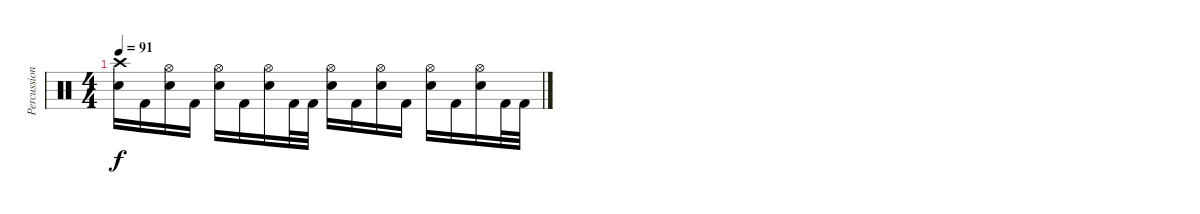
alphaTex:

\track ("Percussion" "Percussion") {instrument percussion}
\staff {score}
\articulation defaults
\ts (4 4)
\tempo 91
\clef neutral
\ks c
("Crash high (hit)" "Electric Snare (hit)").16{dy f} "Kick (hit) 2".16 ("Hi-Hat (open)" "Electric Snare (hit)").16 "Kick (hit) 2".16 ("Hi-Hat (open)" "Electric Snare (hit)").16 "Kick (hit) 2".16 ("Hi-Hat (open)" "Electric Snare (hit)").16 "Kick (hit) 2".32 "Kick (hit) 2".32 ("Hi-Hat (open)" "Electric Snare (hit)").16 "Kick (hit) 2".16 ("Hi-Hat (open)" "Electric Snare (hit)").16 "Kick (hit) 2".16 ("Hi-Hat (open)" "Electric Snare (hit)").16 "Kick (hit) 2".16 ("Hi-Hat (open)" "Electric Snare (hit)").16 "Kick (hit) 2".32 "Kick (hit) 2".32
